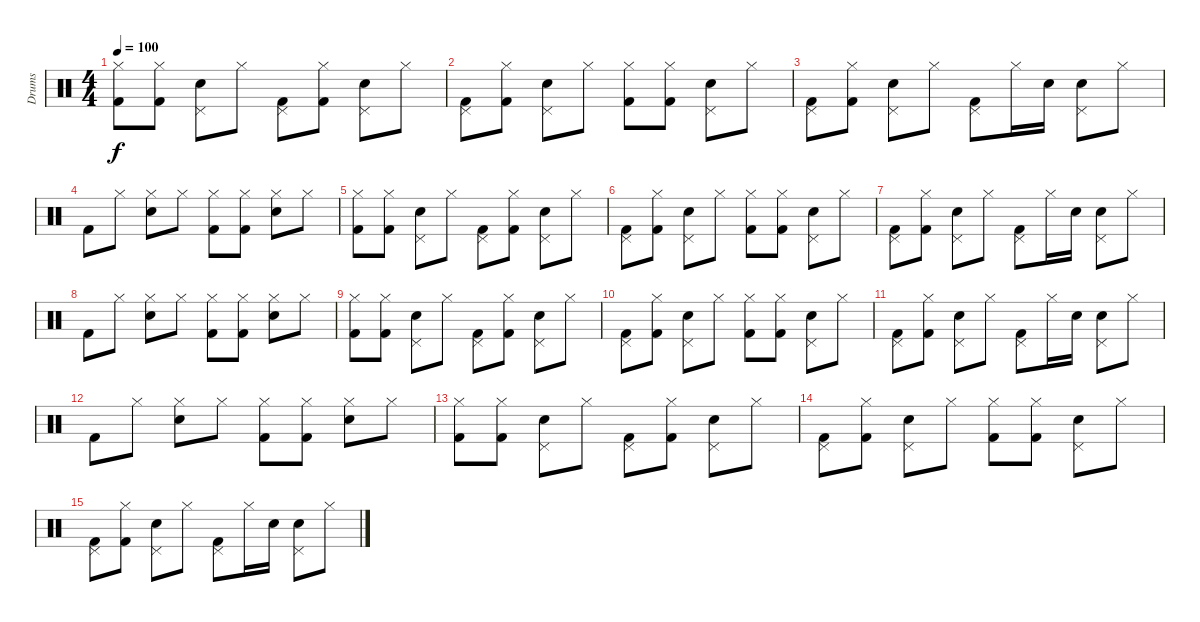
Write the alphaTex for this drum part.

\track ("Drums" "Drums") {instrument percussion}
\staff {score}
\articulation defaults
\ts (4 4)
\tempo 100
\clef neutral
\ks c
("Hi-Hat (closed)" "Kick (hit) 2").8{dy f} ("Hi-Hat (closed)" "Kick (hit) 2").8 ("Pedal Hi-Hat (hit)" "Snare (hit) 2").8 "Hi-Hat (closed)".8 ("Pedal Hi-Hat (hit)" "Kick (hit) 2").8 ("Hi-Hat (closed)" "Kick (hit) 2").8 ("Pedal Hi-Hat (hit)" "Snare (hit) 2").8 "Hi-Hat (closed)".8 |
("Pedal Hi-Hat (hit)" "Kick (hit) 2").8 ("Hi-Hat (closed)" "Kick (hit) 2").8 ("Pedal Hi-Hat (hit)" "Snare (hit) 2").8 "Hi-Hat (closed)".8 ("Hi-Hat (closed)" "Kick (hit) 2").8 ("Hi-Hat (closed)" "Kick (hit) 2").8 ("Pedal Hi-Hat (hit)" "Snare (hit) 2").8 "Hi-Hat (closed)".8 |
("Pedal Hi-Hat (hit)" "Kick (hit) 2").8 ("Hi-Hat (closed)" "Kick (hit) 2").8 ("Pedal Hi-Hat (hit)" "Snare (hit) 2").8 "Hi-Hat (closed)".8 ("Pedal Hi-Hat (hit)" "Kick (hit) 2").8 "Hi-Hat (closed)".16 "Snare (hit) 2".16 ("Pedal Hi-Hat (hit)" "Snare (hit) 2").8 "Hi-Hat (closed)".8 |
"Kick (hit) 2".8 "Hi-Hat (closed)".8 ("Hi-Hat (closed)" "Snare (hit) 2").8 "Hi-Hat (closed)".8 ("Hi-Hat (closed)" "Kick (hit) 2").8 ("Hi-Hat (closed)" "Kick (hit) 2").8 ("Hi-Hat (closed)" "Snare (hit) 2").8 "Hi-Hat (closed)".8 |
("Hi-Hat (closed)" "Kick (hit) 2").8 ("Hi-Hat (closed)" "Kick (hit) 2").8 ("Pedal Hi-Hat (hit)" "Snare (hit) 2").8 "Hi-Hat (closed)".8 ("Pedal Hi-Hat (hit)" "Kick (hit) 2").8 ("Hi-Hat (closed)" "Kick (hit) 2").8 ("Pedal Hi-Hat (hit)" "Snare (hit) 2").8 "Hi-Hat (closed)".8 |
("Pedal Hi-Hat (hit)" "Kick (hit) 2").8 ("Hi-Hat (closed)" "Kick (hit) 2").8 ("Pedal Hi-Hat (hit)" "Snare (hit) 2").8 "Hi-Hat (closed)".8 ("Hi-Hat (closed)" "Kick (hit) 2").8 ("Hi-Hat (closed)" "Kick (hit) 2").8 ("Pedal Hi-Hat (hit)" "Snare (hit) 2").8 "Hi-Hat (closed)".8 |
("Pedal Hi-Hat (hit)" "Kick (hit) 2").8 ("Hi-Hat (closed)" "Kick (hit) 2").8 ("Pedal Hi-Hat (hit)" "Snare (hit) 2").8 "Hi-Hat (closed)".8 ("Pedal Hi-Hat (hit)" "Kick (hit) 2").8 "Hi-Hat (closed)".16 "Snare (hit) 2".16 ("Pedal Hi-Hat (hit)" "Snare (hit) 2").8 "Hi-Hat (closed)".8 |
"Kick (hit) 2".8 "Hi-Hat (closed)".8 ("Hi-Hat (closed)" "Snare (hit) 2").8 "Hi-Hat (closed)".8 ("Hi-Hat (closed)" "Kick (hit) 2").8 ("Hi-Hat (closed)" "Kick (hit) 2").8 ("Hi-Hat (closed)" "Snare (hit) 2").8 "Hi-Hat (closed)".8 |
("Hi-Hat (closed)" "Kick (hit) 2").8 ("Hi-Hat (closed)" "Kick (hit) 2").8 ("Pedal Hi-Hat (hit)" "Snare (hit) 2").8 "Hi-Hat (closed)".8 ("Pedal Hi-Hat (hit)" "Kick (hit) 2").8 ("Hi-Hat (closed)" "Kick (hit) 2").8 ("Pedal Hi-Hat (hit)" "Snare (hit) 2").8 "Hi-Hat (closed)".8 |
("Pedal Hi-Hat (hit)" "Kick (hit) 2").8 ("Hi-Hat (closed)" "Kick (hit) 2").8 ("Pedal Hi-Hat (hit)" "Snare (hit) 2").8 "Hi-Hat (closed)".8 ("Hi-Hat (closed)" "Kick (hit) 2").8 ("Hi-Hat (closed)" "Kick (hit) 2").8 ("Pedal Hi-Hat (hit)" "Snare (hit) 2").8 "Hi-Hat (closed)".8 |
("Pedal Hi-Hat (hit)" "Kick (hit) 2").8 ("Hi-Hat (closed)" "Kick (hit) 2").8 ("Pedal Hi-Hat (hit)" "Snare (hit) 2").8 "Hi-Hat (closed)".8 ("Pedal Hi-Hat (hit)" "Kick (hit) 2").8 "Hi-Hat (closed)".16 "Snare (hit) 2".16 ("Pedal Hi-Hat (hit)" "Snare (hit) 2").8 "Hi-Hat (closed)".8 |
"Kick (hit) 2".8 "Hi-Hat (closed)".8 ("Hi-Hat (closed)" "Snare (hit) 2").8 "Hi-Hat (closed)".8 ("Hi-Hat (closed)" "Kick (hit) 2").8 ("Hi-Hat (closed)" "Kick (hit) 2").8 ("Hi-Hat (closed)" "Snare (hit) 2").8 "Hi-Hat (closed)".8 |
("Hi-Hat (closed)" "Kick (hit) 2").8{volume 8} ("Hi-Hat (closed)" "Kick (hit) 2").8 ("Pedal Hi-Hat (hit)" "Snare (hit) 2").8 "Hi-Hat (closed)".8 ("Pedal Hi-Hat (hit)" "Kick (hit) 2").8 ("Hi-Hat (closed)" "Kick (hit) 2").8 ("Pedal Hi-Hat (hit)" "Snare (hit) 2").8 "Hi-Hat (closed)".8 |
("Pedal Hi-Hat (hit)" "Kick (hit) 2").8{volume 5} ("Hi-Hat (closed)" "Kick (hit) 2").8 ("Pedal Hi-Hat (hit)" "Snare (hit) 2").8 "Hi-Hat (closed)".8 ("Hi-Hat (closed)" "Kick (hit) 2").8 ("Hi-Hat (closed)" "Kick (hit) 2").8 ("Pedal Hi-Hat (hit)" "Snare (hit) 2").8 "Hi-Hat (closed)".8 |
("Pedal Hi-Hat (hit)" "Kick (hit) 2").8{volume 3} ("Hi-Hat (closed)" "Kick (hit) 2").8 ("Pedal Hi-Hat (hit)" "Snare (hit) 2").8 "Hi-Hat (closed)".8 ("Pedal Hi-Hat (hit)" "Kick (hit) 2").8 "Hi-Hat (closed)".16 "Snare (hit) 2".16 ("Pedal Hi-Hat (hit)" "Snare (hit) 2").8 "Hi-Hat (closed)".8
